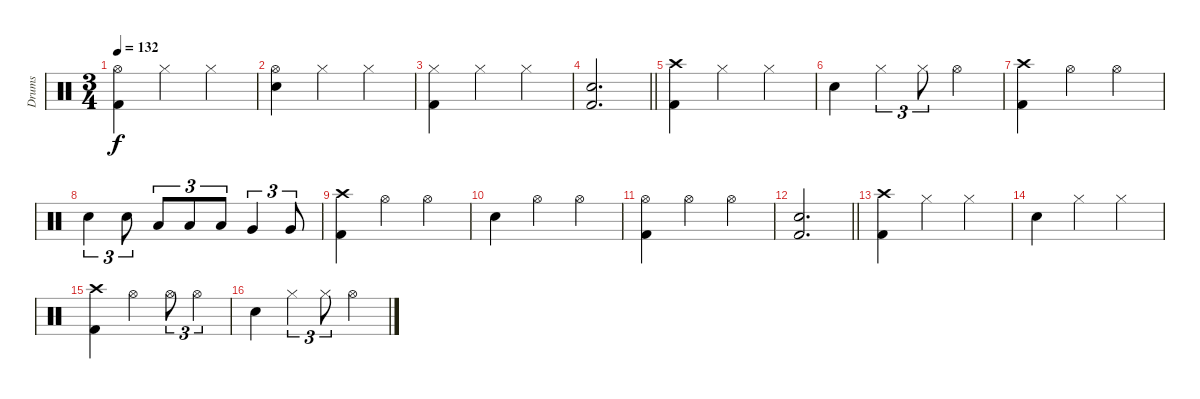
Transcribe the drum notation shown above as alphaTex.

\track ("Drums" "Drums") {instrument percussion}
\staff {score}
\articulation defaults
\ts (3 4)
\tempo 132
\clef neutral
\ks c
("Hi-Hat (open)" "Kick (hit) 2").4{dy f} "Hi-Hat (closed)".4 "Hi-Hat (closed)".4 |
("Hi-Hat (open)" "Electric Snare (hit)").4 "Hi-Hat (closed)".4 "Hi-Hat (closed)".4 |
("Hi-Hat (closed)" "Kick (hit) 2").4 "Hi-Hat (closed)".4 "Hi-Hat (closed)".4 |
\barLineRight lightlight
("Electric Snare (hit)" "Kick (hit) 2").2{d} |
("Crash high (hit)" "Kick (hit) 2").4 "Hi-Hat (closed)".4 "Hi-Hat (closed)".4 |
"Electric Snare (hit)".4 "Hi-Hat (closed)".4{tu (3 2)} "Hi-Hat (closed)".8{tu (3 2)} "Hi-Hat (open)".4 |
("Crash high (hit)" "Kick (hit) 2").4 "Hi-Hat (open)".4 "Hi-Hat (open)".4 |
"Electric Snare (hit)".4{tu (3 2)} "Electric Snare (hit)".8{tu (3 2)} "Low Tom (hit)".8{tu (3 2)} "Low Tom (hit)".8{tu (3 2)} "Low Tom (hit)".8{tu (3 2)} "Very Low Tom (hit)".4{tu (3 2)} "Very Low Tom (hit)".8{tu (3 2)} |
("Crash high (hit)" "Kick (hit) 2").4 "Hi-Hat (open)".4 "Hi-Hat (open)".4 |
"Electric Snare (hit)".4 "Hi-Hat (open)".4 "Hi-Hat (open)".4 |
("Hi-Hat (open)" "Kick (hit) 2").4 "Hi-Hat (open)".4 "Hi-Hat (open)".4 |
\barLineRight lightlight
("Electric Snare (hit)" "Kick (hit) 2").2{d} |
("Crash high (hit)" "Kick (hit) 2").4 "Hi-Hat (closed)".4 "Hi-Hat (closed)".4 |
"Electric Snare (hit)".4 "Hi-Hat (closed)".4 "Hi-Hat (closed)".4 |
("Crash high (hit)" "Kick (hit) 2").4 "Hi-Hat (open)".4 "Hi-Hat (open)".8{tu (3 2)} "Hi-Hat (open)".4{tu (3 2)} |
"Electric Snare (hit)".4 "Hi-Hat (closed)".4{tu (3 2)} "Hi-Hat (closed)".8{tu (3 2)} "Hi-Hat (open)".4
